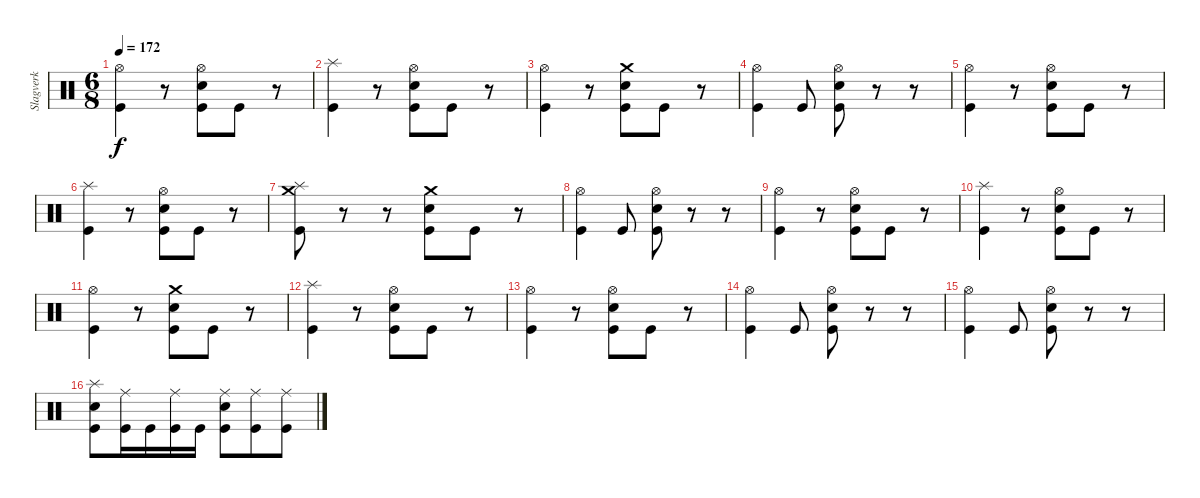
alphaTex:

\track ("Slagverk" "Slagverk") {instrument percussion}
\staff {score}
\articulation defaults
\ts (6 8)
\tempo 172
\clef neutral
\ks c
("Hi-Hat (open)" "Kick (hit)").4{dy f} r.8 ("Hi-Hat (open)" "Snare (hit) 2" "Kick (hit)").8 "Kick (hit)".8 r.8 |
("Splash (hit)" "Kick (hit)").4 r.8 ("Hi-Hat (open)" "Snare (hit) 2" "Kick (hit)").8 "Kick (hit)".8 r.8 |
("Hi-Hat (open)" "Kick (hit)").4 r.8 ("Crash medium (hit)" "Snare (hit) 2" "Kick (hit)").8 "Kick (hit)".8 r.8 |
("Hi-Hat (open)" "Kick (hit)").4 "Kick (hit)".8 ("Hi-Hat (open)" "Snare (hit) 2" "Kick (hit)").8 r.8 r.8 |
("Hi-Hat (open)" "Kick (hit)").4 r.8 ("Hi-Hat (open)" "Snare (hit) 2" "Kick (hit)").8 "Kick (hit)".8 r.8 |
("Splash (hit)" "Kick (hit)").4 r.8 ("Hi-Hat (open)" "Snare (hit) 2" "Kick (hit)").8 "Kick (hit)".8 r.8 |
("Splash (hit)" "Crash medium (hit)" "Kick (hit)").8{volume 16} r.8{volume 0} r.8 ("Crash medium (hit)" "Snare (hit) 2" "Kick (hit)").8{volume 16} "Kick (hit)".8 r.8 |
("Hi-Hat (open)" "Kick (hit)").4 "Kick (hit)".8 ("Hi-Hat (open)" "Snare (hit) 2" "Kick (hit)").8 r.8 r.8 |
("Hi-Hat (open)" "Kick (hit)").4 r.8 ("Hi-Hat (open)" "Snare (hit) 2" "Kick (hit)").8 "Kick (hit)".8 r.8 |
("Splash (hit)" "Kick (hit)").4 r.8 ("Hi-Hat (open)" "Snare (hit) 2" "Kick (hit)").8 "Kick (hit)".8 r.8 |
("Hi-Hat (open)" "Kick (hit)").4 r.8 ("Crash medium (hit)" "Snare (hit) 2" "Kick (hit)").8 "Kick (hit)".8 r.8 |
("Splash (hit)" "Kick (hit)").4 r.8 ("Hi-Hat (open)" "Snare (hit) 2" "Kick (hit)").8 "Kick (hit)".8 r.8 |
("Hi-Hat (open)" "Kick (hit)").4 r.8 ("Hi-Hat (open)" "Snare (hit) 2" "Kick (hit)").8 "Kick (hit)".8 r.8 |
("Hi-Hat (open)" "Kick (hit)").4 "Kick (hit)".8 ("Hi-Hat (open)" "Snare (hit) 2" "Kick (hit)").8 r.8 r.8 |
("Hi-Hat (open)" "Kick (hit)").4 "Kick (hit)".8 ("Hi-Hat (open)" "Snare (hit) 2" "Kick (hit)").8 r.8 r.8 |
("Splash (hit)" "Snare (hit) 2" "Kick (hit)").8 ("Ride (middle)" "Kick (hit)").16 "Kick (hit)".16 ("Ride (middle)" "Kick (hit)").16 "Kick (hit)".16 ("Ride (middle)" "Snare (hit) 2" "Kick (hit)").8 ("Ride (middle)" "Kick (hit)").8 ("Ride (middle)" "Kick (hit)").8
